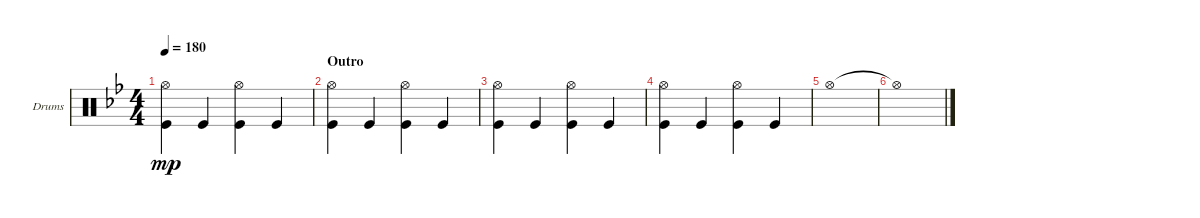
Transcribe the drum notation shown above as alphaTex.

\defaultSystemsLayout 4
\bracketExtendMode groupsimilarinstruments
\firstSystemTrackNameOrientation horizontal
\otherSystemsTrackNameOrientation horizontal
\track ("Drumkit" "Drums") {instrument percussion}
\staff {score}
\articulation defaults
\ts (4 4)
\tempo 180
\clef neutral
\ks bb
("Hi-Hat (open)" "Kick (hit)").4{dy mp} "Kick (hit)".4 ("Kick (hit)" "Hi-Hat (open)").4 "Kick (hit)".4 |
\section ("" "Outro")
("Hi-Hat (open)" "Kick (hit)").4 "Kick (hit)".4 ("Kick (hit)" "Hi-Hat (open)").4 "Kick (hit)".4 |
("Hi-Hat (open)" "Kick (hit)").4 "Kick (hit)".4 ("Kick (hit)" "Hi-Hat (open)").4 "Kick (hit)".4 |
("Hi-Hat (open)" "Kick (hit)").4 "Kick (hit)".4 ("Kick (hit)" "Hi-Hat (open)").4 "Kick (hit)".4 |
"Hi-Hat (open)".1 |
"Hi-Hat (open)"{t}.1
